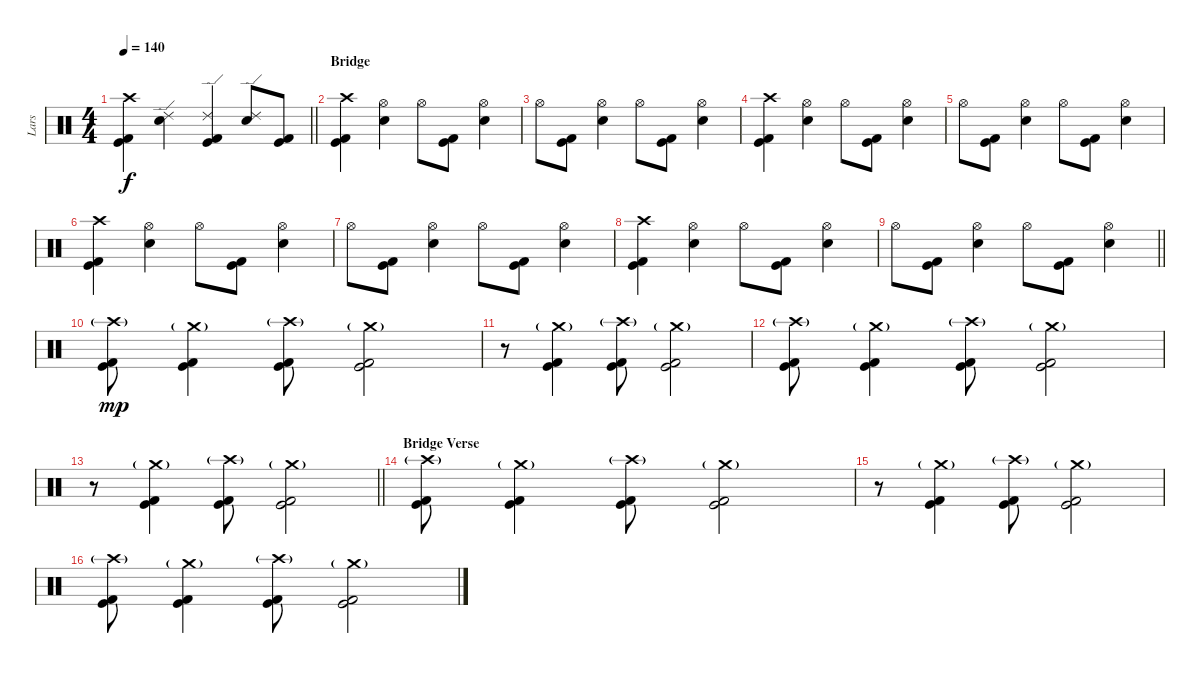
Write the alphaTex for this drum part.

\track ("Lars" "Lars") {instrument percussion}
\staff {score}
\articulation defaults
\ts (4 4)
\tempo 140
\clef neutral
\barLineRight lightlight
\ks c
("Crash high (hit)" "Kick (hit)" "Kick (hit) 2").4{dy f} ("Ride (edge) 2" "Electric Snare (hit)").4 ("Ride (edge) 2" "Kick (hit)" "Kick (hit) 2").4 ("Ride (edge) 2" "Electric Snare (hit)").8 ("Kick (hit)" "Kick (hit) 2").8 |
\section ("" "Bridge")
("Crash high (hit)" "Kick (hit)" "Kick (hit) 2").4 ("Hi-Hat (open)" "Electric Snare (hit)").4 "Hi-Hat (open)".8 ("Kick (hit)" "Kick (hit) 2").8 ("Hi-Hat (open)" "Electric Snare (hit)").4 |
"Hi-Hat (open)".8 ("Kick (hit)" "Kick (hit) 2").8 ("Hi-Hat (open)" "Electric Snare (hit)").4 "Hi-Hat (open)".8 ("Kick (hit)" "Kick (hit) 2").8 ("Hi-Hat (open)" "Electric Snare (hit)").4 |
("Crash high (hit)" "Kick (hit)" "Kick (hit) 2").4 ("Hi-Hat (open)" "Electric Snare (hit)").4 "Hi-Hat (open)".8 ("Kick (hit)" "Kick (hit) 2").8 ("Hi-Hat (open)" "Electric Snare (hit)").4 |
"Hi-Hat (open)".8 ("Kick (hit)" "Kick (hit) 2").8 ("Hi-Hat (open)" "Electric Snare (hit)").4 "Hi-Hat (open)".8 ("Kick (hit)" "Kick (hit) 2").8 ("Hi-Hat (open)" "Electric Snare (hit)").4 |
("Crash high (hit)" "Kick (hit)" "Kick (hit) 2").4 ("Hi-Hat (open)" "Electric Snare (hit)").4 "Hi-Hat (open)".8 ("Kick (hit)" "Kick (hit) 2").8 ("Hi-Hat (open)" "Electric Snare (hit)").4 |
"Hi-Hat (open)".8 ("Kick (hit)" "Kick (hit) 2").8 ("Hi-Hat (open)" "Electric Snare (hit)").4 "Hi-Hat (open)".8 ("Kick (hit)" "Kick (hit) 2").8 ("Hi-Hat (open)" "Electric Snare (hit)").4 |
("Crash high (hit)" "Kick (hit)" "Kick (hit) 2").4 ("Hi-Hat (open)" "Electric Snare (hit)").4 "Hi-Hat (open)".8 ("Kick (hit)" "Kick (hit) 2").8 ("Hi-Hat (open)" "Electric Snare (hit)").4 |
\barLineRight lightlight "Hi-Hat (open)".8
("Kick (hit)" "Kick (hit) 2").8 ("Hi-Hat (open)" "Electric Snare (hit)").4 "Hi-Hat (open)".8 ("Kick (hit)" "Kick (hit) 2").8 ("Hi-Hat (open)" "Electric Snare (hit)").4 |
\section ("" "")
("Crash high (hit)"{g} "Kick (hit)" "Kick (hit) 2").8{dy mp} ("Crash medium (hit)"{g} "Kick (hit)" "Kick (hit) 2").4 ("Crash high (hit)"{g} "Kick (hit)" "Kick (hit) 2").8 ("Crash medium (hit)"{g} "Kick (hit)" "Kick (hit) 2").2 |
r.8 ("Crash medium (hit)"{g} "Kick (hit)" "Kick (hit) 2").4 ("Crash high (hit)"{g} "Kick (hit)" "Kick (hit) 2").8 ("Crash medium (hit)"{g} "Kick (hit)" "Kick (hit) 2").2 |
("Crash high (hit)"{g} "Kick (hit)" "Kick (hit) 2").8 ("Crash medium (hit)"{g} "Kick (hit)" "Kick (hit) 2").4 ("Crash high (hit)"{g} "Kick (hit)" "Kick (hit) 2").8 ("Crash medium (hit)"{g} "Kick (hit)" "Kick (hit) 2").2 |
\barLineRight lightlight
r.8 ("Crash medium (hit)"{g} "Kick (hit)" "Kick (hit) 2").4 ("Crash high (hit)"{g} "Kick (hit)" "Kick (hit) 2").8 ("Crash medium (hit)"{g} "Kick (hit)" "Kick (hit) 2").2 |
\section ("" "Bridge Verse")
("Crash high (hit)"{g} "Kick (hit)" "Kick (hit) 2").8 ("Crash medium (hit)"{g} "Kick (hit)" "Kick (hit) 2").4 ("Crash high (hit)"{g} "Kick (hit)" "Kick (hit) 2").8 ("Crash medium (hit)"{g} "Kick (hit)" "Kick (hit) 2").2 |
r.8 ("Crash medium (hit)"{g} "Kick (hit)" "Kick (hit) 2").4 ("Crash high (hit)"{g} "Kick (hit)" "Kick (hit) 2").8 ("Crash medium (hit)"{g} "Kick (hit)" "Kick (hit) 2").2 |
("Crash high (hit)"{g} "Kick (hit)" "Kick (hit) 2").8 ("Crash medium (hit)"{g} "Kick (hit)" "Kick (hit) 2").4 ("Crash high (hit)"{g} "Kick (hit)" "Kick (hit) 2").8 ("Crash medium (hit)"{g} "Kick (hit)" "Kick (hit) 2").2
